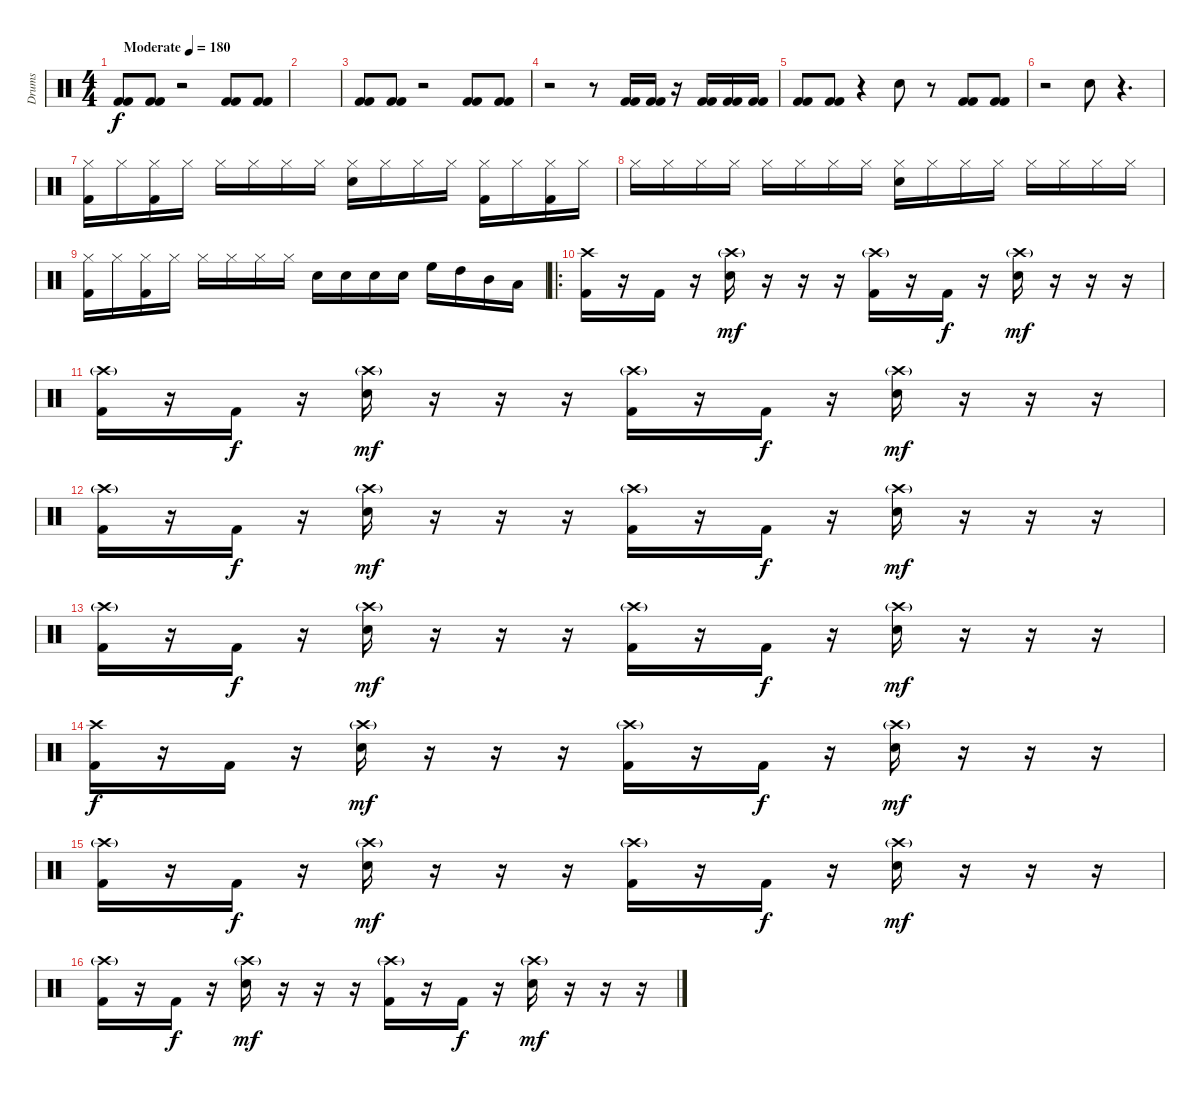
\track ("Drums" "Drums") {instrument percussion}
\staff {score}
\articulation defaults
\ts (4 4)
\tempo (180 "Moderate")
\clef neutral
\ks c
("Kick (hit) 2" "Kick (hit) 2").8{dy f} ("Kick (hit) 2" "Kick (hit) 2").8 r.2 ("Kick (hit) 2" "Kick (hit) 2").8 ("Kick (hit) 2" "Kick (hit) 2").8 |
|
("Kick (hit) 2" "Kick (hit) 2").8 ("Kick (hit) 2" "Kick (hit) 2").8 r.2 ("Kick (hit) 2" "Kick (hit) 2").8 ("Kick (hit) 2" "Kick (hit) 2").8 |
r.2 r.8 ("Kick (hit) 2" "Kick (hit) 2").16 ("Kick (hit) 2" "Kick (hit) 2").16 r.16 ("Kick (hit) 2" "Kick (hit) 2").16 ("Kick (hit) 2" "Kick (hit) 2").16 ("Kick (hit) 2" "Kick (hit) 2").16 |
("Kick (hit) 2" "Kick (hit) 2").8 ("Kick (hit) 2" "Kick (hit) 2").8 r.4 "Snare (hit) 2".8 r.8 ("Kick (hit) 2" "Kick (hit) 2").8 ("Kick (hit) 2" "Kick (hit) 2").8 |
r.2 "Snare (hit) 2".8 r.4{d} |
("Hi-Hat (closed)" "Kick (hit) 2").16 "Hi-Hat (closed)".16 ("Hi-Hat (closed)" "Kick (hit) 2").16 "Hi-Hat (closed)".16 "Hi-Hat (closed)".16 "Hi-Hat (closed)".16 "Hi-Hat (closed)".16 "Hi-Hat (closed)".16 ("Hi-Hat (closed)" "Snare (hit) 2").16 "Hi-Hat (closed)".16 "Hi-Hat (closed)".16 "Hi-Hat (closed)".16 ("Hi-Hat (closed)" "Kick (hit) 2").16 "Hi-Hat (closed)".16 ("Hi-Hat (closed)" "Kick (hit) 2").16 "Hi-Hat (closed)".16 |
"Hi-Hat (closed)".16 "Hi-Hat (closed)".16 "Hi-Hat (closed)".16 "Hi-Hat (closed)".16 "Hi-Hat (closed)".16 "Hi-Hat (closed)".16 "Hi-Hat (closed)".16 "Hi-Hat (closed)".16 ("Hi-Hat (closed)" "Snare (hit) 2").16 "Hi-Hat (closed)".16 "Hi-Hat (closed)".16 "Hi-Hat (closed)".16 "Hi-Hat (closed)".16 "Hi-Hat (closed)".16 "Hi-Hat (closed)".16 "Hi-Hat (closed)".16 |
("Hi-Hat (closed)" "Kick (hit) 2").16 "Hi-Hat (closed)".16 ("Hi-Hat (closed)" "Kick (hit) 2").16 "Hi-Hat (closed)".16 "Hi-Hat (closed)".16 "Hi-Hat (closed)".16 "Hi-Hat (closed)".16 "Hi-Hat (closed)".16 "Snare (hit) 2".16 "Snare (hit) 2".16 "Snare (hit) 2".16 "Snare (hit) 2".16 "High Floor Tom (hit)".16 "High Tom (hit)".16 "Mid Tom (hit)".16 "Low Tom (hit)".16 |
\ro
("Crash high (hit)" "Kick (hit) 2").16 r.16 "Kick (hit) 2".16 r.16 ("Crash high (hit)"{g} "Snare (hit) 2").16{dy mf} r.16 r.16 r.16 ("Crash high (hit)"{g} "Kick (hit) 2").16 r.16 "Kick (hit) 2".16{dy f} r.16 ("Crash high (hit)"{g} "Snare (hit) 2").16{dy mf} r.16 r.16 r.16 |
("Crash high (hit)"{g} "Kick (hit) 2").16 r.16 "Kick (hit) 2".16{dy f} r.16 ("Crash high (hit)"{g} "Snare (hit) 2").16{dy mf} r.16 r.16 r.16 ("Crash high (hit)"{g} "Kick (hit) 2").16 r.16 "Kick (hit) 2".16{dy f} r.16 ("Crash high (hit)"{g} "Snare (hit) 2").16{dy mf} r.16 r.16 r.16 |
("Crash high (hit)"{g} "Kick (hit) 2").16 r.16 "Kick (hit) 2".16{dy f} r.16 ("Crash high (hit)"{g} "Snare (hit) 2").16{dy mf} r.16 r.16 r.16 ("Crash high (hit)"{g} "Kick (hit) 2").16 r.16 "Kick (hit) 2".16{dy f} r.16 ("Crash high (hit)"{g} "Snare (hit) 2").16{dy mf} r.16 r.16 r.16 |
("Crash high (hit)"{g} "Kick (hit) 2").16 r.16 "Kick (hit) 2".16{dy f} r.16 ("Crash high (hit)"{g} "Snare (hit) 2").16{dy mf} r.16 r.16 r.16 ("Crash high (hit)"{g} "Kick (hit) 2").16 r.16 "Kick (hit) 2".16{dy f} r.16 ("Crash high (hit)"{g} "Snare (hit) 2").16{dy mf} r.16 r.16 r.16 |
("Crash high (hit)" "Kick (hit) 2").16{dy f} r.16 "Kick (hit) 2".16 r.16 ("Crash high (hit)"{g} "Snare (hit) 2").16{dy mf} r.16 r.16 r.16 ("Crash high (hit)"{g} "Kick (hit) 2").16 r.16 "Kick (hit) 2".16{dy f} r.16 ("Crash high (hit)"{g} "Snare (hit) 2").16{dy mf} r.16 r.16 r.16 |
("Crash high (hit)"{g} "Kick (hit) 2").16 r.16 "Kick (hit) 2".16{dy f} r.16 ("Crash high (hit)"{g} "Snare (hit) 2").16{dy mf} r.16 r.16 r.16 ("Crash high (hit)"{g} "Kick (hit) 2").16 r.16 "Kick (hit) 2".16{dy f} r.16 ("Crash high (hit)"{g} "Snare (hit) 2").16{dy mf} r.16 r.16 r.16 |
("Crash high (hit)"{g} "Kick (hit) 2").16 r.16 "Kick (hit) 2".16{dy f} r.16 ("Crash high (hit)"{g} "Snare (hit) 2").16{dy mf} r.16 r.16 r.16 ("Crash high (hit)"{g} "Kick (hit) 2").16 r.16 "Kick (hit) 2".16{dy f} r.16 ("Crash high (hit)"{g} "Snare (hit) 2").16{dy mf} r.16 r.16 r.16
